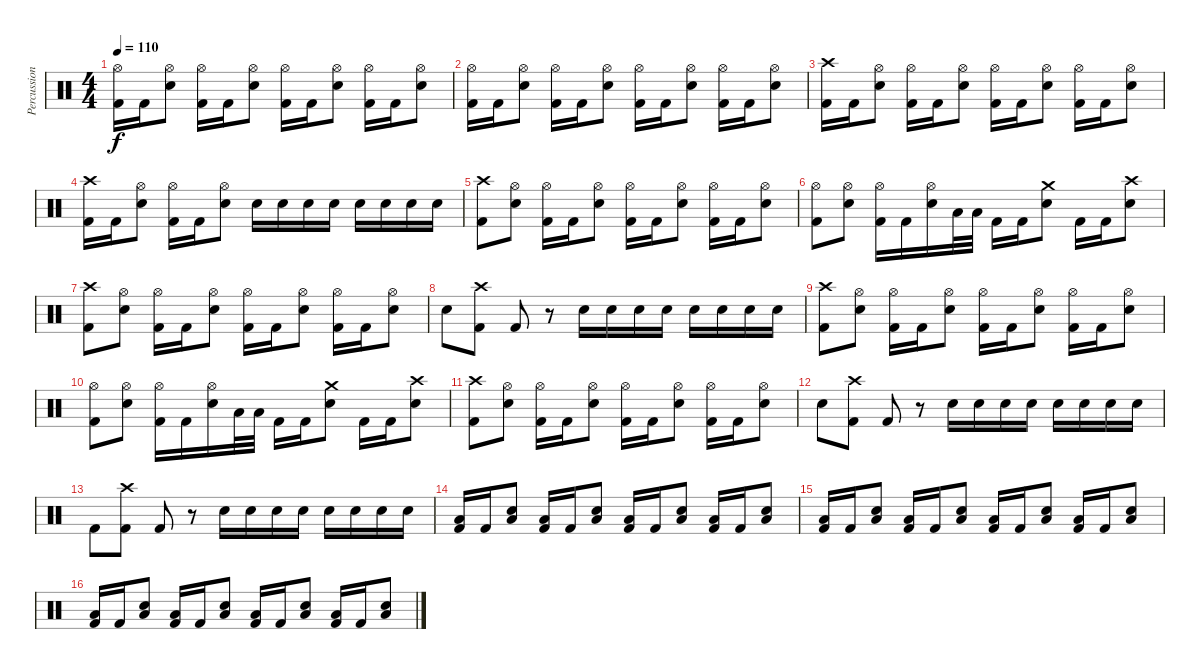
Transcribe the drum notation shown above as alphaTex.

\track ("Percussion" "Percussion") {instrument percussion}
\staff {score}
\articulation defaults
\ts (4 4)
\tempo 110
\clef neutral
\ks c
("Hi-Hat (open)" "Kick (hit) 2").16{dy f} "Kick (hit) 2".16 ("Hi-Hat (open)" "Electric Snare (hit)").8 ("Hi-Hat (open)" "Kick (hit) 2").16 "Kick (hit) 2".16 ("Hi-Hat (open)" "Electric Snare (hit)").8 ("Hi-Hat (open)" "Kick (hit) 2").16 "Kick (hit) 2".16 ("Hi-Hat (open)" "Electric Snare (hit)").8 ("Hi-Hat (open)" "Kick (hit) 2").16 "Kick (hit) 2".16 ("Hi-Hat (open)" "Electric Snare (hit)").8 |
("Hi-Hat (open)" "Kick (hit) 2").16 "Kick (hit) 2".16 ("Hi-Hat (open)" "Electric Snare (hit)").8 ("Hi-Hat (open)" "Kick (hit) 2").16 "Kick (hit) 2".16 ("Hi-Hat (open)" "Electric Snare (hit)").8 ("Hi-Hat (open)" "Kick (hit) 2").16 "Kick (hit) 2".16 ("Hi-Hat (open)" "Electric Snare (hit)").8 ("Hi-Hat (open)" "Kick (hit) 2").16 "Kick (hit) 2".16 ("Hi-Hat (open)" "Electric Snare (hit)").8 |
("Crash high (hit)" "Kick (hit) 2").16 "Kick (hit) 2".16 ("Hi-Hat (open)" "Electric Snare (hit)").8 ("Hi-Hat (open)" "Kick (hit) 2").16 "Kick (hit) 2".16 ("Hi-Hat (open)" "Electric Snare (hit)").8 ("Hi-Hat (open)" "Kick (hit) 2").16 "Kick (hit) 2".16 ("Hi-Hat (open)" "Electric Snare (hit)").8 ("Hi-Hat (open)" "Kick (hit) 2").16 "Kick (hit) 2".16 ("Hi-Hat (open)" "Electric Snare (hit)").8 |
("Crash high (hit)" "Kick (hit) 2").16 "Kick (hit) 2".16 ("Hi-Hat (open)" "Electric Snare (hit)").8 ("Hi-Hat (open)" "Kick (hit) 2").16 "Kick (hit) 2".16 ("Hi-Hat (open)" "Electric Snare (hit)").8 "Electric Snare (hit)".16 "Electric Snare (hit)".16 "Electric Snare (hit)".16 "Electric Snare (hit)".16 "Electric Snare (hit)".16 "Electric Snare (hit)".16 "Electric Snare (hit)".16 "Electric Snare (hit)".16 |
("Crash high (hit)" "Kick (hit) 2").8 ("Hi-Hat (open)" "Electric Snare (hit)").8 ("Hi-Hat (open)" "Kick (hit) 2").16 "Kick (hit) 2".16 ("Hi-Hat (open)" "Electric Snare (hit)").8 ("Hi-Hat (open)" "Kick (hit) 2").16 "Kick (hit) 2".16 ("Hi-Hat (open)" "Electric Snare (hit)").8 ("Hi-Hat (open)" "Kick (hit) 2").16 "Kick (hit) 2".16 ("Hi-Hat (open)" "Electric Snare (hit)").8 |
("Hi-Hat (open)" "Kick (hit) 2").8 ("Hi-Hat (open)" "Electric Snare (hit)").8 ("Hi-Hat (open)" "Kick (hit) 2").16 "Kick (hit) 2".16 ("Hi-Hat (open)" "Electric Snare (hit)").16 "Low Tom (hit)".32 "Low Tom (hit)".32 "Kick (hit) 2".16 "Kick (hit) 2".16 ("Crash medium (hit)" "Electric Snare (hit)").8 "Kick (hit) 2".16 "Kick (hit) 2".16 ("Crash high (hit)" "Electric Snare (hit)").8 |
("Crash high (hit)" "Kick (hit) 2").8 ("Hi-Hat (open)" "Electric Snare (hit)").8 ("Hi-Hat (open)" "Kick (hit) 2").16 "Kick (hit) 2".16 ("Hi-Hat (open)" "Electric Snare (hit)").8 ("Hi-Hat (open)" "Kick (hit) 2").16 "Kick (hit) 2".16 ("Hi-Hat (open)" "Electric Snare (hit)").8 ("Hi-Hat (open)" "Kick (hit) 2").16 "Kick (hit) 2".16 ("Hi-Hat (open)" "Electric Snare (hit)").8 |
"Electric Snare (hit)".8 ("Crash high (hit)" "Kick (hit) 2").8 "Kick (hit) 2".8 r.8 "Electric Snare (hit)".16 "Electric Snare (hit)".16 "Electric Snare (hit)".16 "Electric Snare (hit)".16 "Electric Snare (hit)".16 "Electric Snare (hit)".16 "Electric Snare (hit)".16 "Electric Snare (hit)".16 |
("Crash high (hit)" "Kick (hit) 2").8 ("Hi-Hat (open)" "Electric Snare (hit)").8 ("Hi-Hat (open)" "Kick (hit) 2").16 "Kick (hit) 2".16 ("Hi-Hat (open)" "Electric Snare (hit)").8 ("Hi-Hat (open)" "Kick (hit) 2").16 "Kick (hit) 2".16 ("Hi-Hat (open)" "Electric Snare (hit)").8 ("Hi-Hat (open)" "Kick (hit) 2").16 "Kick (hit) 2".16 ("Hi-Hat (open)" "Electric Snare (hit)").8 |
("Hi-Hat (open)" "Kick (hit) 2").8 ("Hi-Hat (open)" "Electric Snare (hit)").8 ("Hi-Hat (open)" "Kick (hit) 2").16 "Kick (hit) 2".16 ("Hi-Hat (open)" "Electric Snare (hit)").16 "Low Tom (hit)".32 "Low Tom (hit)".32 "Kick (hit) 2".16 "Kick (hit) 2".16 ("Crash medium (hit)" "Electric Snare (hit)").8 "Kick (hit) 2".16 "Kick (hit) 2".16 ("Crash high (hit)" "Electric Snare (hit)").8 |
("Crash high (hit)" "Kick (hit) 2").8 ("Hi-Hat (open)" "Electric Snare (hit)").8 ("Hi-Hat (open)" "Kick (hit) 2").16 "Kick (hit) 2".16 ("Hi-Hat (open)" "Electric Snare (hit)").8 ("Hi-Hat (open)" "Kick (hit) 2").16 "Kick (hit) 2".16 ("Hi-Hat (open)" "Electric Snare (hit)").8 ("Hi-Hat (open)" "Kick (hit) 2").16 "Kick (hit) 2".16 ("Hi-Hat (open)" "Electric Snare (hit)").8 |
"Electric Snare (hit)".8 ("Crash high (hit)" "Kick (hit) 2").8 "Kick (hit) 2".8 r.8 "Electric Snare (hit)".16 "Electric Snare (hit)".16 "Electric Snare (hit)".16 "Electric Snare (hit)".16 "Electric Snare (hit)".16 "Electric Snare (hit)".16 "Electric Snare (hit)".16 "Electric Snare (hit)".16 |
"Kick (hit) 2".8 ("Crash high (hit)" "Kick (hit) 2").8 "Kick (hit) 2".8 r.8 "Electric Snare (hit)".16 "Electric Snare (hit)".16 "Electric Snare (hit)".16 "Electric Snare (hit)".16 "Electric Snare (hit)".16 "Electric Snare (hit)".16 "Electric Snare (hit)".16 "Electric Snare (hit)".16 |
("Low Tom (hit)" "Kick (hit) 2").16 "Kick (hit) 2".16 ("Low Tom (hit)" "Electric Snare (hit)").8 ("Low Tom (hit)" "Kick (hit) 2").16 "Kick (hit) 2".16 ("Low Tom (hit)" "Electric Snare (hit)").8 ("Low Tom (hit)" "Kick (hit) 2").16 "Kick (hit) 2".16 ("Low Tom (hit)" "Electric Snare (hit)").8 ("Low Tom (hit)" "Kick (hit) 2").16 "Kick (hit) 2".16 ("Low Tom (hit)" "Electric Snare (hit)").8 |
("Low Tom (hit)" "Kick (hit) 2").16 "Kick (hit) 2".16 ("Low Tom (hit)" "Electric Snare (hit)").8 ("Low Tom (hit)" "Kick (hit) 2").16 "Kick (hit) 2".16 ("Low Tom (hit)" "Electric Snare (hit)").8 ("Low Tom (hit)" "Kick (hit) 2").16 "Kick (hit) 2".16 ("Low Tom (hit)" "Electric Snare (hit)").8 ("Low Tom (hit)" "Kick (hit) 2").16 "Kick (hit) 2".16 ("Low Tom (hit)" "Electric Snare (hit)").8 |
("Low Tom (hit)" "Kick (hit) 2").16 "Kick (hit) 2".16 ("Low Tom (hit)" "Electric Snare (hit)").8 ("Low Tom (hit)" "Kick (hit) 2").16 "Kick (hit) 2".16 ("Low Tom (hit)" "Electric Snare (hit)").8 ("Low Tom (hit)" "Kick (hit) 2").16 "Kick (hit) 2".16 ("Low Tom (hit)" "Electric Snare (hit)").8 ("Low Tom (hit)" "Kick (hit) 2").16 "Kick (hit) 2".16 ("Low Tom (hit)" "Electric Snare (hit)").8
